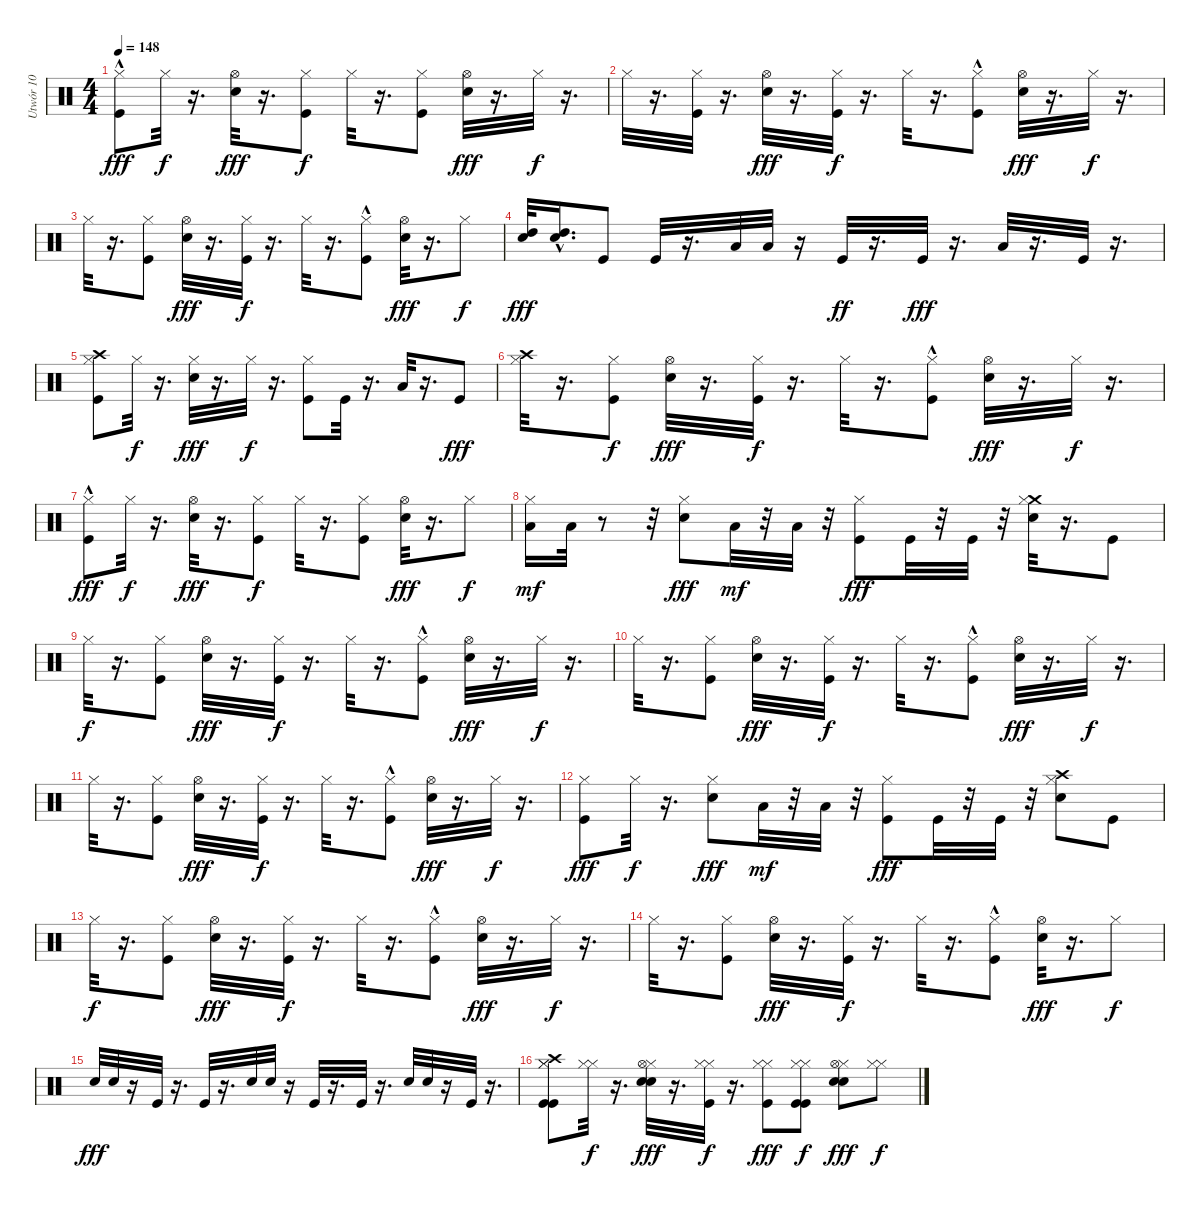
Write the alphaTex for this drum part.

\track ("Utwór 10" "Utwór 10") {instrument percussion}
\staff {score}
\articulation defaults
\ts (4 4)
\tempo 148
\clef neutral
\ks c
("Hi-Hat (closed)" "Kick (hit)"{hac}).8{dy fff} "Hi-Hat (closed)".32{dy f} r.16{d} ("Hi-Hat (open)" "Electric Snare (hit)").32{dy fff} r.16{d} ("Hi-Hat (closed)" "Kick (hit)").8{dy f} "Hi-Hat (closed)".32 r.16{d} ("Hi-Hat (closed)" "Kick (hit)").8 ("Hi-Hat (open)" "Electric Snare (hit)").32{dy fff} r.16{d} "Hi-Hat (closed)".32{dy f} r.16{d} |
"Hi-Hat (closed)".32 r.16{d} ("Hi-Hat (closed)" "Kick (hit)").32 r.16{d} ("Hi-Hat (open)" "Electric Snare (hit)").32{dy fff} r.16{d} ("Hi-Hat (closed)" "Kick (hit)").32{dy f} r.16{d} "Hi-Hat (closed)".32 r.16{d} ("Hi-Hat (closed)" "Kick (hit)"{hac}).8 ("Hi-Hat (open)" "Electric Snare (hit)").32{dy fff} r.16{d} "Hi-Hat (closed)".32{dy f} r.16{d} |
"Hi-Hat (closed)".32 r.16{d} ("Hi-Hat (closed)" "Kick (hit)").8 ("Hi-Hat (open)" "Electric Snare (hit)").32{dy fff} r.16{d} ("Hi-Hat (closed)" "Kick (hit)").32{dy f} r.16{d} "Hi-Hat (closed)".32 r.16{d} ("Hi-Hat (closed)" "Kick (hit)"{hac}).8 ("Hi-Hat (open)" "Electric Snare (hit)").32{dy fff} r.16{d} "Hi-Hat (closed)".8{dy f} |
("Electric Snare (hit)" "High Tom (hit)").32{dy fff} ("Electric Snare (hit)"{hac} "High Tom (hit)").16{d} "Kick (hit)".8 "Kick (hit)".32 r.16{d} "Low Tom (hit)".32 "Low Tom (hit)".32 r.16 "Kick (hit)".32{dy ff} r.16{d} "Kick (hit)".32{dy fff} r.16{d} "Low Floor Tom (hit)".32 r.16{d} "Kick (hit)".32 r.16{d} |
("Crash high (hit)" "Hi-Hat (closed)" "Kick (hit)").8 "Hi-Hat (closed)".32{dy f} r.16{d} ("Hi-Hat (closed)" "Electric Snare (hit)").32{dy fff} r.16{d} "Hi-Hat (closed)".32{dy f} r.16{d} ("Hi-Hat (closed)" "Kick (hit)").8 "Kick (hit)".32 r.16{d} "Low Floor Tom (hit)".32 r.16{d} "Kick (hit)".8{dy fff} |
("Crash high (hit)" "Hi-Hat (closed)").32 r.16{d} ("Hi-Hat (closed)" "Kick (hit)").8{dy f} ("Hi-Hat (open)" "Electric Snare (hit)").32{dy fff} r.16{d} ("Hi-Hat (closed)" "Kick (hit)").32{dy f} r.16{d} "Hi-Hat (closed)".32 r.16{d} ("Hi-Hat (closed)" "Kick (hit)"{hac}).8 ("Hi-Hat (open)" "Electric Snare (hit)").32{dy fff} r.16{d} "Hi-Hat (closed)".32{dy f} r.16{d} |
("Hi-Hat (closed)" "Kick (hit)"{hac}).8{dy fff} "Hi-Hat (closed)".32{dy f} r.16{d} ("Hi-Hat (open)" "Electric Snare (hit)").32{dy fff} r.16{d} ("Hi-Hat (closed)" "Kick (hit)").8{dy f} "Hi-Hat (closed)".32 r.16{d} ("Hi-Hat (closed)" "Kick (hit)").8 ("Hi-Hat (open)" "Electric Snare (hit)").32{dy fff} r.16{d} "Hi-Hat (closed)".8{dy f} |
("Low Tom (hit)" "Hi-Hat (closed)").16{dy mf} "Low Tom (hit)".32 r.8 r.32 ("Hi-Hat (closed)" "Electric Snare (hit)").8{dy fff} "Low Floor Tom (hit)".32{dy mf} r.32 "Low Floor Tom (hit)".32 r.32 ("Hi-Hat (closed)" "Kick (hit)").8{dy fff} "Kick (hit)".32 r.32 "Kick (hit)".32 r.32 ("Crash medium (hit)" "Hi-Hat (closed)" "Electric Snare (hit)").32 r.16{d} "Kick (hit)".8 |
"Hi-Hat (closed)".32{dy f} r.16{d} ("Hi-Hat (closed)" "Kick (hit)").8 ("Hi-Hat (open)" "Electric Snare (hit)").32{dy fff} r.16{d} ("Hi-Hat (closed)" "Kick (hit)").32{dy f} r.16{d} "Hi-Hat (closed)".32 r.16{d} ("Hi-Hat (closed)" "Kick (hit)"{hac}).8 ("Hi-Hat (open)" "Electric Snare (hit)").32{dy fff} r.16{d} "Hi-Hat (closed)".32{dy f} r.16{d} |
"Hi-Hat (closed)".32 r.16{d} ("Hi-Hat (closed)" "Kick (hit)").8 ("Hi-Hat (open)" "Electric Snare (hit)").32{dy fff} r.16{d} ("Hi-Hat (closed)" "Kick (hit)").32{dy f} r.16{d} "Hi-Hat (closed)".32 r.16{d} ("Hi-Hat (closed)" "Kick (hit)"{hac}).8 ("Hi-Hat (open)" "Electric Snare (hit)").32{dy fff} r.16{d} "Hi-Hat (closed)".32{dy f} r.16{d} |
"Hi-Hat (closed)".32 r.16{d} ("Hi-Hat (closed)" "Kick (hit)").8 ("Hi-Hat (open)" "Electric Snare (hit)").32{dy fff} r.16{d} ("Hi-Hat (closed)" "Kick (hit)").32{dy f} r.16{d} "Hi-Hat (closed)".32 r.16{d} ("Hi-Hat (closed)" "Kick (hit)"{hac}).8 ("Hi-Hat (open)" "Electric Snare (hit)").32{dy fff} r.16{d} "Hi-Hat (closed)".32{dy f} r.16{d} |
("Hi-Hat (closed)" "Kick (hit)").8{dy fff} "Hi-Hat (closed)".32{dy f} r.16{d} ("Hi-Hat (closed)" "Electric Snare (hit)").8{dy fff} "Low Floor Tom (hit)".32{dy mf} r.32 "Low Floor Tom (hit)".32 r.32 ("Hi-Hat (closed)" "Kick (hit)").8{dy fff} "Kick (hit)".32 r.32 "Kick (hit)".32 r.32 ("Crash high (hit)" "Hi-Hat (closed)" "Electric Snare (hit)").8 "Kick (hit)".8 |
"Hi-Hat (closed)".32{dy f} r.16{d} ("Hi-Hat (closed)" "Kick (hit)").8 ("Hi-Hat (open)" "Electric Snare (hit)").32{dy fff} r.16{d} ("Hi-Hat (closed)" "Kick (hit)").32{dy f} r.16{d} "Hi-Hat (closed)".32 r.16{d} ("Hi-Hat (closed)" "Kick (hit)"{hac}).8 ("Hi-Hat (open)" "Electric Snare (hit)").32{dy fff} r.16{d} "Hi-Hat (closed)".32{dy f} r.16{d} |
"Hi-Hat (closed)".32 r.16{d} ("Hi-Hat (closed)" "Kick (hit)").8 ("Hi-Hat (open)" "Electric Snare (hit)").32{dy fff} r.16{d} ("Hi-Hat (closed)" "Kick (hit)").32{dy f} r.16{d} "Hi-Hat (closed)".32 r.16{d} ("Hi-Hat (closed)" "Kick (hit)"{hac}).8 ("Hi-Hat (open)" "Electric Snare (hit)").32{dy fff} r.16{d} "Hi-Hat (closed)".8{dy f} |
"Electric Snare (hit)".32{dy fff} "Electric Snare (hit)".32 r.16 "Kick (hit)".32 r.16{d} "Kick (hit)".32 r.16{d} "Electric Snare (hit)".32 "Electric Snare (hit)".32 r.16 "Kick (hit)".32 r.16{d} "Kick (hit)".32 r.16{d} "Electric Snare (hit)".32 "Electric Snare (hit)".32 r.16 "Kick (hit)".32 r.16{d} |
("Crash high (hit)" "Hi-Hat (closed)" "Kick (hit)" "Hi-Hat (closed)" "Kick (hit)").8 ("Hi-Hat (closed)" "Hi-Hat (closed)").32{dy f} r.16{d} ("Hi-Hat (closed)" "Electric Snare (hit)" "Hi-Hat (open)" "Electric Snare (hit)").32{dy fff} r.16{d} ("Hi-Hat (closed)" "Hi-Hat (closed)" "Kick (hit)").32{dy f} r.16{d} ("Hi-Hat (closed)" "Hi-Hat (closed)" "Kick (hit)").8{dy fff} ("Hi-Hat (closed)" "Kick (hit)" "Hi-Hat (closed)" "Kick (hit)").8{dy f} ("Hi-Hat (closed)" "Electric Snare (hit)" "Hi-Hat (open)" "Electric Snare (hit)").8{dy fff} ("Hi-Hat (closed)" "Hi-Hat (closed)").8{dy f}
